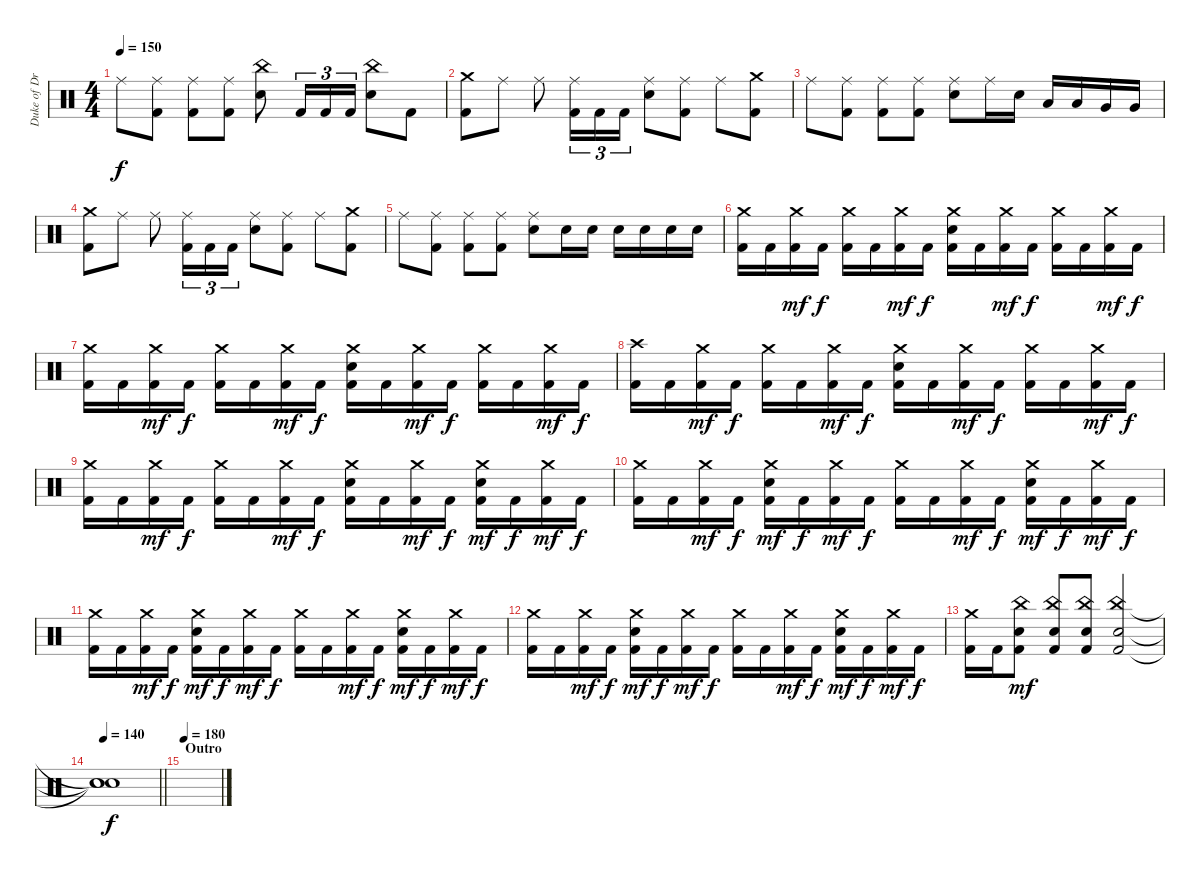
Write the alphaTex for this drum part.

\track ("Duke of Drumington" "Duke of Dr") {instrument percussion}
\staff {score}
\articulation defaults
\ts (4 4)
\tempo 150
\clef neutral
\ks c "Ride (middle)".8{dy f}
("Ride (middle)" "Kick (hit) 2").8 ("Ride (middle)" "Kick (hit) 2").8 ("Ride (middle)" "Kick (hit) 2").8 ("China (hit)" "Electric Snare (hit)").8 "Kick (hit) 2".16{tu (3 2)} "Kick (hit) 2".16{tu (3 2)} "Kick (hit) 2".16{tu (3 2)} ("China (hit)" "Electric Snare (hit)").8 "Kick (hit) 2".8 |
("Crash medium (hit)" "Kick (hit) 2").8 "Ride (middle)".8 "Ride (middle)".8 ("Ride (middle)" "Kick (hit) 2").16{tu (3 2)} "Kick (hit) 2".16{tu (3 2)} "Kick (hit) 2".16{tu (3 2)} ("Ride (middle)" "Electric Snare (hit)").8 ("Ride (middle)" "Kick (hit) 2").8 "Ride (middle)".8 ("Crash medium (hit)" "Kick (hit) 2").8 |
"Ride (middle)".8 ("Ride (middle)" "Kick (hit) 2").8 ("Ride (middle)" "Kick (hit) 2").8 ("Ride (middle)" "Kick (hit) 2").8 ("Ride (middle)" "Electric Snare (hit)").8 "Ride (middle)".16 "Electric Snare (hit)".16 "Low Tom (hit)".16 "Low Tom (hit)".16 "Very Low Tom (hit)".16 "Very Low Tom (hit)".16 |
("Crash medium (hit)" "Kick (hit) 2").8 "Ride (middle)".8 "Ride (middle)".8 ("Ride (middle)" "Kick (hit) 2").16{tu (3 2)} "Kick (hit) 2".16{tu (3 2)} "Kick (hit) 2".16{tu (3 2)} ("Ride (middle)" "Electric Snare (hit)").8 ("Ride (middle)" "Kick (hit) 2").8 "Ride (middle)".8 ("Crash medium (hit)" "Kick (hit) 2").8 |
"Ride (middle)".8 ("Ride (middle)" "Kick (hit) 2").8 ("Ride (middle)" "Kick (hit) 2").8 ("Ride (middle)" "Kick (hit) 2").8 ("Ride (middle)" "Electric Snare (hit)").8 "Electric Snare (hit)".16 "Electric Snare (hit)".16 "Electric Snare (hit)".16 "Electric Snare (hit)".16 "Electric Snare (hit)".16 "Electric Snare (hit)".16 |
("Crash medium (hit)" "Kick (hit) 2").16 "Kick (hit) 2".16 ("Crash medium (hit)" "Kick (hit) 2").16{dy mf} "Kick (hit) 2".16{dy f} ("Crash medium (hit)" "Kick (hit) 2").16 "Kick (hit) 2".16 ("Crash medium (hit)" "Kick (hit) 2").16{dy mf} "Kick (hit) 2".16{dy f} ("Crash medium (hit)" "Electric Snare (hit)" "Kick (hit) 2").16 "Kick (hit) 2".16 ("Crash medium (hit)" "Kick (hit) 2").16{dy mf} "Kick (hit) 2".16{dy f} ("Crash medium (hit)" "Kick (hit) 2").16 "Kick (hit) 2".16 ("Crash medium (hit)" "Kick (hit) 2").16{dy mf} "Kick (hit) 2".16{dy f} |
("Crash medium (hit)" "Kick (hit) 2").16 "Kick (hit) 2".16 ("Crash medium (hit)" "Kick (hit) 2").16{dy mf} "Kick (hit) 2".16{dy f} ("Crash medium (hit)" "Kick (hit) 2").16 "Kick (hit) 2".16 ("Crash medium (hit)" "Kick (hit) 2").16{dy mf} "Kick (hit) 2".16{dy f} ("Crash medium (hit)" "Electric Snare (hit)" "Kick (hit) 2").16 "Kick (hit) 2".16 ("Crash medium (hit)" "Kick (hit) 2").16{dy mf} "Kick (hit) 2".16{dy f} ("Crash medium (hit)" "Kick (hit) 2").16 "Kick (hit) 2".16 ("Crash medium (hit)" "Kick (hit) 2").16{dy mf} "Kick (hit) 2".16{dy f} |
("Crash high (hit)" "Kick (hit) 2").16 "Kick (hit) 2".16 ("Crash medium (hit)" "Kick (hit) 2").16{dy mf} "Kick (hit) 2".16{dy f} ("Crash medium (hit)" "Kick (hit) 2").16 "Kick (hit) 2".16 ("Crash medium (hit)" "Kick (hit) 2").16{dy mf} "Kick (hit) 2".16{dy f} ("Crash medium (hit)" "Electric Snare (hit)" "Kick (hit) 2").16 "Kick (hit) 2".16 ("Crash medium (hit)" "Kick (hit) 2").16{dy mf} "Kick (hit) 2".16{dy f} ("Crash medium (hit)" "Kick (hit) 2").16 "Kick (hit) 2".16 ("Crash medium (hit)" "Kick (hit) 2").16{dy mf} "Kick (hit) 2".16{dy f} |
("Crash medium (hit)" "Kick (hit) 2").16 "Kick (hit) 2".16 ("Crash medium (hit)" "Kick (hit) 2").16{dy mf} "Kick (hit) 2".16{dy f} ("Crash medium (hit)" "Kick (hit) 2").16 "Kick (hit) 2".16 ("Crash medium (hit)" "Kick (hit) 2").16{dy mf} "Kick (hit) 2".16{dy f} ("Crash medium (hit)" "Electric Snare (hit)" "Kick (hit) 2").16 "Kick (hit) 2".16 ("Crash medium (hit)" "Kick (hit) 2").16{dy mf} "Kick (hit) 2".16{dy f} ("Crash medium (hit)" "Electric Snare (hit)" "Kick (hit) 2").16{dy mf} "Kick (hit) 2".16{dy f} ("Crash medium (hit)" "Kick (hit) 2").16{dy mf} "Kick (hit) 2".16{dy f} |
("Crash medium (hit)" "Kick (hit) 2").16 "Kick (hit) 2".16 ("Crash medium (hit)" "Kick (hit) 2").16{dy mf} "Kick (hit) 2".16{dy f} ("Crash medium (hit)" "Electric Snare (hit)" "Kick (hit) 2").16{dy mf} "Kick (hit) 2".16{dy f} ("Crash medium (hit)" "Kick (hit) 2").16{dy mf} "Kick (hit) 2".16{dy f} ("Crash medium (hit)" "Kick (hit) 2").16 "Kick (hit) 2".16 ("Crash medium (hit)" "Kick (hit) 2").16{dy mf} "Kick (hit) 2".16{dy f} ("Crash medium (hit)" "Electric Snare (hit)" "Kick (hit) 2").16{dy mf} "Kick (hit) 2".16{dy f} ("Crash medium (hit)" "Kick (hit) 2").16{dy mf} "Kick (hit) 2".16{dy f} |
("Crash medium (hit)" "Kick (hit) 2").16 "Kick (hit) 2".16 ("Crash medium (hit)" "Kick (hit) 2").16{dy mf} "Kick (hit) 2".16{dy f} ("Crash medium (hit)" "Electric Snare (hit)" "Kick (hit) 2").16{dy mf} "Kick (hit) 2".16{dy f} ("Crash medium (hit)" "Kick (hit) 2").16{dy mf} "Kick (hit) 2".16{dy f} ("Crash medium (hit)" "Kick (hit) 2").16 "Kick (hit) 2".16 ("Crash medium (hit)" "Kick (hit) 2").16{dy mf} "Kick (hit) 2".16{dy f} ("Crash medium (hit)" "Electric Snare (hit)" "Kick (hit) 2").16{dy mf} "Kick (hit) 2".16{dy f} ("Crash medium (hit)" "Kick (hit) 2").16{dy mf} "Kick (hit) 2".16{dy f} |
("Crash medium (hit)" "Kick (hit) 2").16 "Kick (hit) 2".16 ("Crash medium (hit)" "Kick (hit) 2").16{dy mf} "Kick (hit) 2".16{dy f} ("Crash medium (hit)" "Electric Snare (hit)" "Kick (hit) 2").16{dy mf} "Kick (hit) 2".16{dy f} ("Crash medium (hit)" "Kick (hit) 2").16{dy mf} "Kick (hit) 2".16{dy f} ("Crash medium (hit)" "Kick (hit) 2").16 "Kick (hit) 2".16 ("Crash medium (hit)" "Kick (hit) 2").16{dy mf} "Kick (hit) 2".16{dy f} ("Crash medium (hit)" "Electric Snare (hit)" "Kick (hit) 2").16{dy mf} "Kick (hit) 2".16{dy f} ("Crash medium (hit)" "Kick (hit) 2").16{dy mf} "Kick (hit) 2".16{dy f} |
("Crash medium (hit)" "Kick (hit) 2").16 "Kick (hit) 2".16 ("China (hit)" "Electric Snare (hit)" "Kick (hit) 2").8{dy mf} ("China (hit)" "Electric Snare (hit)" "Kick (hit) 2").8 ("China (hit)" "Electric Snare (hit)" "Kick (hit) 2").8 ("China (hit)" "Electric Snare (hit)" "Kick (hit) 2").2 |
\tempo 140
\barLineRight lightlight
("Snare (hit)"{t} "Snare (hit)"{t} "Snare (hit)"{t}).1{dy f} |
\section ("" "Outro")
\tempo 170
\tempo 180
